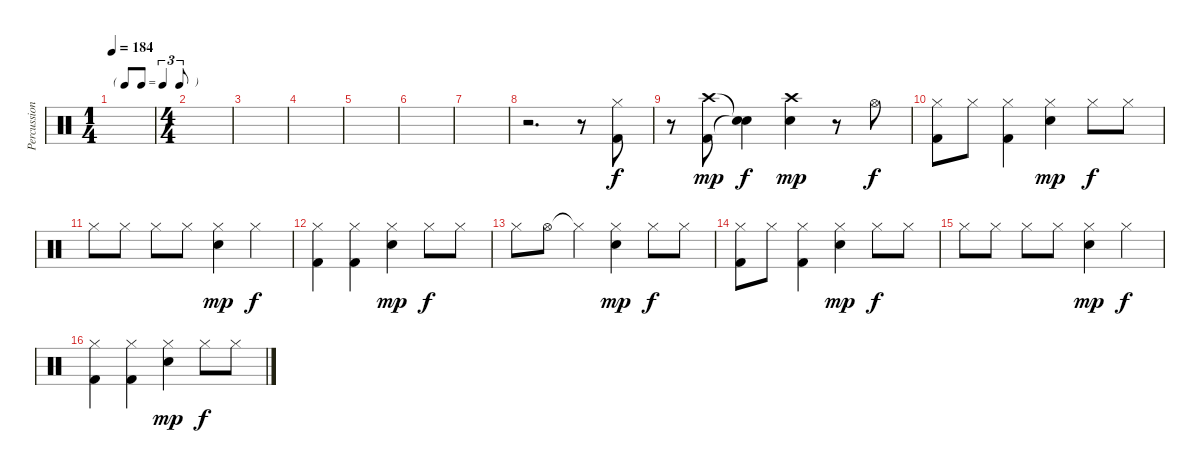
\track ("Percussion" "Percussion") {instrument percussion}
\staff {score}
\articulation defaults
\ts (1 4)
\tf triplet8th
\tempo 184
\clef neutral
\ks c
|
\ts (4 4)
|
|
|
|
|
|
r.2{d} r.8 ("Hi-Hat (closed)" "Kick (hit) 2").8 |
r.8 ("Crash high (hit)" "Kick (hit) 2").8{dy mp} ("Snare (hit)"{t} "Snare (hit)"{t}).4{dy f} ("Crash high (hit)" "Electric Snare (hit)").4{dy mp} r.8 "Hi-Hat (open)".8{dy f} |
("Hi-Hat (closed)" "Kick (hit) 2").8 "Hi-Hat (closed)".8 ("Hi-Hat (closed)" "Kick (hit) 2").4 ("Hi-Hat (closed)" "Electric Snare (hit)").4{dy mp} "Hi-Hat (closed)".8{dy f} "Hi-Hat (closed)".8 |
"Hi-Hat (closed)".8 "Hi-Hat (closed)".8 "Hi-Hat (closed)".8 "Hi-Hat (closed)".8 ("Hi-Hat (closed)" "Electric Snare (hit)").4{dy mp} "Hi-Hat (closed)".4{dy f} |
("Hi-Hat (closed)" "Kick (hit) 2").4 ("Hi-Hat (closed)" "Kick (hit) 2").4 ("Hi-Hat (closed)" "Electric Snare (hit)").4{dy mp} "Hi-Hat (closed)".8{dy f} "Hi-Hat (closed)".8 |
"Hi-Hat (closed)".8 "Hi-Hat (open)".8 "Hi-Hat (closed)"{t}.4 ("Hi-Hat (closed)" "Electric Snare (hit)").4{dy mp} "Hi-Hat (closed)".8{dy f} "Hi-Hat (closed)".8 |
("Hi-Hat (closed)" "Kick (hit) 2").8 "Hi-Hat (closed)".8 ("Hi-Hat (closed)" "Kick (hit) 2").4 ("Hi-Hat (closed)" "Electric Snare (hit)").4{dy mp} "Hi-Hat (closed)".8{dy f} "Hi-Hat (closed)".8 |
"Hi-Hat (closed)".8 "Hi-Hat (closed)".8 "Hi-Hat (closed)".8 "Hi-Hat (closed)".8 ("Hi-Hat (closed)" "Electric Snare (hit)").4{dy mp} "Hi-Hat (closed)".4{dy f} |
("Hi-Hat (closed)" "Kick (hit) 2").4 ("Hi-Hat (closed)" "Kick (hit) 2").4 ("Hi-Hat (closed)" "Electric Snare (hit)").4{dy mp} "Hi-Hat (closed)".8{dy f} "Hi-Hat (closed)".8
